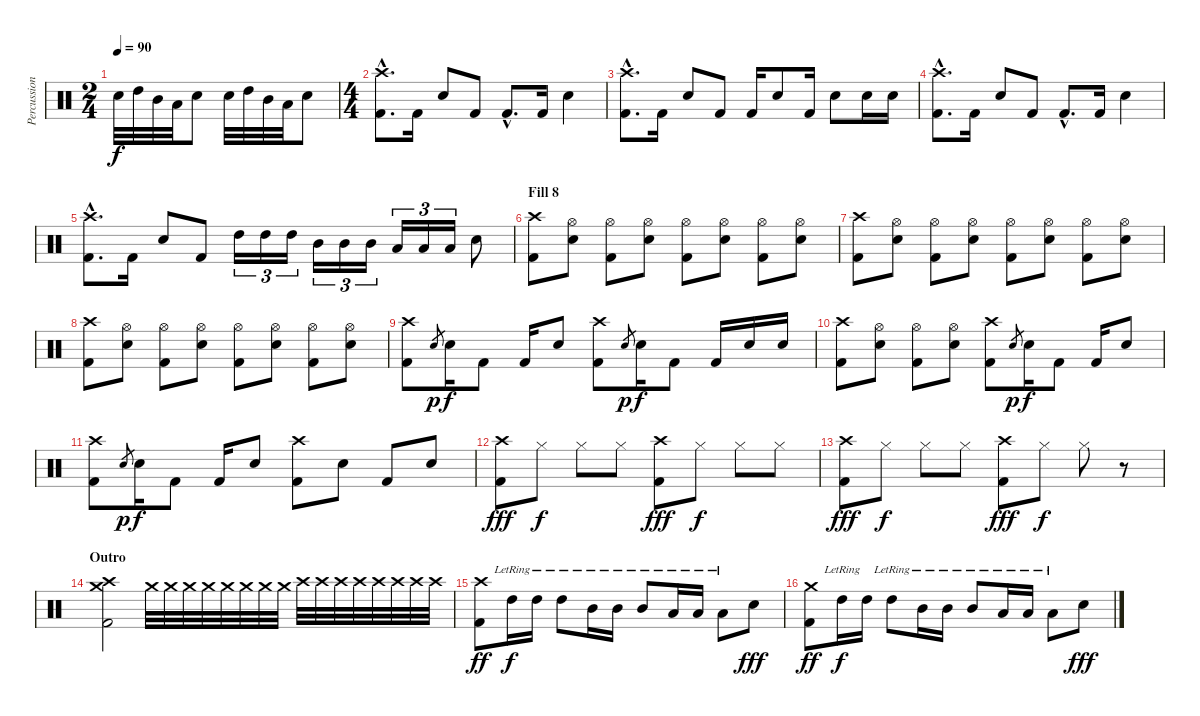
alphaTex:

\track ("Percussion" "Percussion") {instrument percussion}
\staff {score}
\articulation defaults
\ts (2 4)
\tempo 90
\clef neutral
\ks c "Electric Snare (hit)".32{dy f} "High Tom (hit)".32 "Mid Tom (hit)".32 "Low Tom (hit)".32 "Electric Snare (hit)".8 "Electric Snare (hit)".32 "High Tom (hit)".32 "Mid Tom (hit)".32 "Low Tom (hit)".32 "Electric Snare (hit)".8
|
\ts (4 4)
("Crash high (hit)"{hac} "Kick (hit) 2"{hac}).8{d} "Kick (hit) 2".16 "Electric Snare (hit)".8 "Kick (hit) 2".8 "Kick (hit) 2"{hac}.8{d} "Kick (hit) 2".16 "Electric Snare (hit)".4 |
("Crash high (hit)"{hac} "Kick (hit) 2"{hac}).8{d} "Kick (hit) 2".16 "Electric Snare (hit)".8 "Kick (hit) 2".8 "Kick (hit) 2".16 "Electric Snare (hit)".8 "Kick (hit) 2".16 "Electric Snare (hit)".8 "Electric Snare (hit)".16 "Electric Snare (hit)".16 |
("Crash high (hit)"{hac} "Kick (hit) 2"{hac}).8{d} "Kick (hit) 2".16 "Electric Snare (hit)".8 "Kick (hit) 2".8 "Kick (hit) 2"{hac}.8{d} "Kick (hit) 2".16 "Electric Snare (hit)".4 |
("Crash high (hit)"{hac} "Kick (hit) 2"{hac}).8{d} "Kick (hit) 2".16 "Electric Snare (hit)".8 "Kick (hit) 2".8 "High Tom (hit)".16{tu (3 2)} "High Tom (hit)".16{tu (3 2)} "High Tom (hit)".16{tu (3 2)} "Mid Tom (hit)".16{tu (3 2)} "Mid Tom (hit)".16{tu (3 2)} "Mid Tom (hit)".16{tu (3 2)} "Low Tom (hit)".16{tu (3 2)} "Low Tom (hit)".16{tu (3 2)} "Low Tom (hit)".16{tu (3 2)} "Electric Snare (hit)".8 |
\section ("" "Fill 8")
("Crash high (hit)" "Kick (hit) 2").8 ("Hi-Hat (open)" "Electric Snare (hit)").8 ("Hi-Hat (open)" "Kick (hit) 2").8 ("Hi-Hat (open)" "Electric Snare (hit)").8 ("Hi-Hat (open)" "Kick (hit) 2").8 ("Hi-Hat (open)" "Electric Snare (hit)").8 ("Hi-Hat (open)" "Kick (hit) 2").8 ("Hi-Hat (open)" "Electric Snare (hit)").8 |
("Crash high (hit)" "Kick (hit) 2").8 ("Hi-Hat (open)" "Electric Snare (hit)").8 ("Hi-Hat (open)" "Kick (hit) 2").8 ("Hi-Hat (open)" "Electric Snare (hit)").8 ("Hi-Hat (open)" "Kick (hit) 2").8 ("Hi-Hat (open)" "Electric Snare (hit)").8 ("Hi-Hat (open)" "Kick (hit) 2").8 ("Hi-Hat (open)" "Electric Snare (hit)").8 |
("Crash high (hit)" "Kick (hit) 2").8 ("Hi-Hat (open)" "Electric Snare (hit)").8 ("Hi-Hat (open)" "Kick (hit) 2").8 ("Hi-Hat (open)" "Electric Snare (hit)").8 ("Hi-Hat (open)" "Kick (hit) 2").8 ("Hi-Hat (open)" "Electric Snare (hit)").8 ("Hi-Hat (open)" "Kick (hit) 2").8 ("Hi-Hat (open)" "Electric Snare (hit)").8 |
("Crash high (hit)" "Kick (hit) 2").8 "Electric Snare (hit)"{h}.8{gr dy p} "Electric Snare (hit)".16{dy f} "Kick (hit) 2".8 "Kick (hit) 2".16 "Electric Snare (hit)".8 ("Crash high (hit)" "Kick (hit) 2").8 "Electric Snare (hit)"{h}.8{gr dy p} "Electric Snare (hit)".16{dy f} "Kick (hit) 2".8 "Kick (hit) 2".16 "Electric Snare (hit)".16 "Electric Snare (hit)".16 |
("Crash high (hit)" "Kick (hit) 2").8 ("Hi-Hat (open)" "Electric Snare (hit)").8 ("Hi-Hat (open)" "Kick (hit) 2").8 ("Hi-Hat (open)" "Electric Snare (hit)").8 ("Crash high (hit)" "Kick (hit) 2").8 "Electric Snare (hit)"{h}.8{gr dy p} "Electric Snare (hit)".16{dy f} "Kick (hit) 2".8 "Kick (hit) 2".16 "Electric Snare (hit)".8 |
("Crash high (hit)" "Kick (hit) 2").8 "Electric Snare (hit)"{h}.8{gr dy p} "Electric Snare (hit)".16{dy f} "Kick (hit) 2".8 "Kick (hit) 2".16 "Electric Snare (hit)".8 ("Crash high (hit)" "Kick (hit) 2").8 "Electric Snare (hit)".8 "Kick (hit) 2".8 "Electric Snare (hit)".8 |
("Crash high (hit)" "Kick (hit) 2").8{dy fff} "Hi-Hat (closed)".8{dy f} "Hi-Hat (closed)".8 "Hi-Hat (closed)".8 ("Crash high (hit)" "Kick (hit) 2").8{dy fff} "Hi-Hat (closed)".8{dy f} "Hi-Hat (closed)".8 "Hi-Hat (closed)".8 |
("Crash high (hit)" "Kick (hit) 2").8{dy fff} "Hi-Hat (closed)".8{dy f} "Hi-Hat (closed)".8 "Hi-Hat (closed)".8 ("Crash high (hit)" "Kick (hit) 2").8{dy fff} "Hi-Hat (closed)".8{dy f} "Hi-Hat (closed)".8 r.8 |
\section ("" "Outro")
("Crash high (hit)" "Crash medium (hit)" "Kick (hit) 2").2 "Crash medium (hit)".32 "Crash medium (hit)".32 "Crash medium (hit)".32 "Crash medium (hit)".32 "Crash medium (hit)".32 "Crash medium (hit)".32 "Crash medium (hit)".32 "Crash medium (hit)".32 "Crash high (hit)".32 "Crash high (hit)".32 "Crash high (hit)".32 "Crash high (hit)".32 "Crash high (hit)".32 "Crash high (hit)".32 "Crash high (hit)".32 "Crash high (hit)".32 |
("Crash high (hit)" "Kick (hit) 2").8{dy ff} "High Tom (hit)"{lr}.16{dy f} "High Tom (hit)"{lr}.16 "High Tom (hit)"{lr}.8 "Mid Tom (hit)"{lr}.16 "Mid Tom (hit)"{lr}.16 "Mid Tom (hit)"{lr}.8 "Low Tom (hit)"{lr}.16 "Low Tom (hit)"{lr}.16 "Low Tom (hit)"{lr}.8 "Electric Snare (hit)".8{dy fff} |
("Crash medium (hit)" "Kick (hit) 2").8{dy ff} "High Tom (hit)"{lr}.16{dy f} "High Tom (hit)".16 "High Tom (hit)"{lr}.8 "Mid Tom (hit)"{lr}.16 "Mid Tom (hit)"{lr}.16 "Mid Tom (hit)"{lr}.8 "Low Tom (hit)"{lr}.16 "Low Tom (hit)"{lr}.16 "Low Tom (hit)"{lr}.8 "Electric Snare (hit)".8{dy fff}
